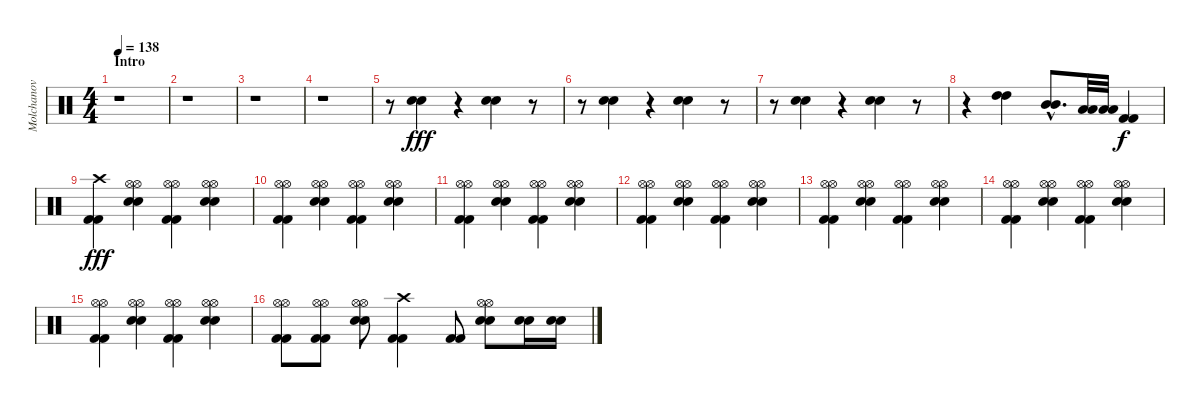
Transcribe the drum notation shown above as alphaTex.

\track ("Molchanov" "Molchanov") {instrument percussion}
\staff {score}
\articulation defaults
\ts (4 4)
\section ("" "Intro")
\tempo 138
\clef neutral
\ks c
r.1{dy fff} |
r.1 |
r.1 |
r.1 |
r.8 ("Electric Snare (hit)" "Electric Snare (hit)").4 r.4 ("Electric Snare (hit)" "Electric Snare (hit)").4 r.8 |
r.8 ("Electric Snare (hit)" "Electric Snare (hit)").4 r.4 ("Electric Snare (hit)" "Electric Snare (hit)").4 r.8 |
r.8 ("Electric Snare (hit)" "Electric Snare (hit)").4 r.4 ("Electric Snare (hit)" "Electric Snare (hit)").4 r.8 |
r.4 ("High Tom (hit)" "High Tom (hit)").4 ("Mid Tom (hit)"{hac} "Mid Tom (hit)"{hac}).8{d} ("Low Tom (hit)" "Low Tom (hit)").32 ("Low Tom (hit)" "Low Tom (hit)").32 ("Kick (hit) 2" "Kick (hit) 2").4{dy f} |
("Crash high (hit)" "Kick (hit) 2" "Kick (hit) 2").4{dy fff} ("Hi-Hat (open)" "Hi-Hat (open)" "Electric Snare (hit)" "Electric Snare (hit)").4 ("Hi-Hat (open)" "Hi-Hat (open)" "Kick (hit) 2" "Kick (hit) 2").4 ("Hi-Hat (open)" "Hi-Hat (open)" "Electric Snare (hit)" "Electric Snare (hit)").4 |
("Hi-Hat (open)" "Hi-Hat (open)" "Kick (hit) 2" "Kick (hit) 2").4 ("Hi-Hat (open)" "Hi-Hat (open)" "Electric Snare (hit)" "Electric Snare (hit)").4 ("Hi-Hat (open)" "Hi-Hat (open)" "Kick (hit) 2" "Kick (hit) 2").4 ("Hi-Hat (open)" "Hi-Hat (open)" "Electric Snare (hit)" "Electric Snare (hit)").4 |
("Hi-Hat (open)" "Hi-Hat (open)" "Kick (hit) 2" "Kick (hit) 2").4 ("Hi-Hat (open)" "Hi-Hat (open)" "Electric Snare (hit)" "Electric Snare (hit)").4 ("Hi-Hat (open)" "Hi-Hat (open)" "Kick (hit) 2" "Kick (hit) 2").4 ("Hi-Hat (open)" "Hi-Hat (open)" "Electric Snare (hit)" "Electric Snare (hit)").4 |
("Hi-Hat (open)" "Hi-Hat (open)" "Kick (hit) 2" "Kick (hit) 2").4 ("Hi-Hat (open)" "Hi-Hat (open)" "Electric Snare (hit)" "Electric Snare (hit)").4 ("Hi-Hat (open)" "Hi-Hat (open)" "Kick (hit) 2" "Kick (hit) 2").4 ("Hi-Hat (open)" "Hi-Hat (open)" "Electric Snare (hit)" "Electric Snare (hit)").4 |
("Hi-Hat (open)" "Hi-Hat (open)" "Kick (hit) 2" "Kick (hit) 2").4 ("Hi-Hat (open)" "Hi-Hat (open)" "Electric Snare (hit)" "Electric Snare (hit)").4 ("Hi-Hat (open)" "Hi-Hat (open)" "Kick (hit) 2" "Kick (hit) 2").4 ("Hi-Hat (open)" "Hi-Hat (open)" "Electric Snare (hit)" "Electric Snare (hit)").4 |
("Hi-Hat (open)" "Hi-Hat (open)" "Kick (hit) 2" "Kick (hit) 2").4 ("Hi-Hat (open)" "Hi-Hat (open)" "Electric Snare (hit)" "Electric Snare (hit)").4 ("Hi-Hat (open)" "Hi-Hat (open)" "Kick (hit) 2" "Kick (hit) 2").4 ("Hi-Hat (open)" "Hi-Hat (open)" "Electric Snare (hit)" "Electric Snare (hit)").4 |
("Hi-Hat (open)" "Hi-Hat (open)" "Kick (hit) 2" "Kick (hit) 2").4 ("Hi-Hat (open)" "Hi-Hat (open)" "Electric Snare (hit)" "Electric Snare (hit)").4 ("Hi-Hat (open)" "Hi-Hat (open)" "Kick (hit) 2" "Kick (hit) 2").4 ("Hi-Hat (open)" "Hi-Hat (open)" "Electric Snare (hit)" "Electric Snare (hit)").4 |
("Hi-Hat (open)" "Hi-Hat (open)" "Kick (hit) 2" "Kick (hit) 2").8 ("Hi-Hat (open)" "Hi-Hat (open)" "Kick (hit) 2" "Kick (hit) 2").8 ("Hi-Hat (open)" "Hi-Hat (open)" "Electric Snare (hit)" "Electric Snare (hit)").8 ("Crash high (hit)" "Kick (hit) 2" "Kick (hit) 2").4 ("Kick (hit) 2" "Kick (hit) 2").8 ("Hi-Hat (open)" "Hi-Hat (open)" "Electric Snare (hit)" "Electric Snare (hit)").8 ("Electric Snare (hit)" "Electric Snare (hit)").16 ("Electric Snare (hit)" "Electric Snare (hit)").16
